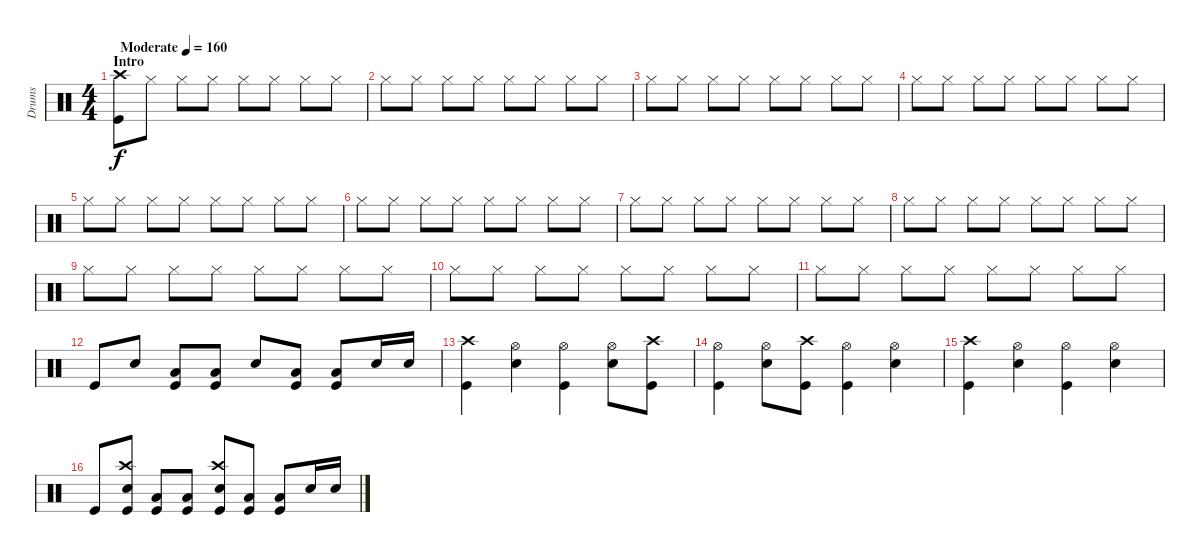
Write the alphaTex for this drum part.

\track ("Drums" "Drums") {instrument percussion}
\staff {score}
\articulation defaults
\ts (4 4)
\section ("" "Intro")
\tempo (160 "Moderate")
\clef neutral
\ks c
("Kick (hit)" "Crash high (hit)").8{dy f} "Hi-Hat (closed)".8 "Hi-Hat (closed)".8 "Hi-Hat (closed)".8 "Hi-Hat (closed)".8 "Hi-Hat (closed)".8 "Hi-Hat (closed)".8 "Hi-Hat (closed)".8 |
"Hi-Hat (closed)".8 "Hi-Hat (closed)".8 "Hi-Hat (closed)".8 "Hi-Hat (closed)".8 "Hi-Hat (closed)".8 "Hi-Hat (closed)".8 "Hi-Hat (closed)".8 "Hi-Hat (closed)".8 |
"Hi-Hat (closed)".8 "Hi-Hat (closed)".8 "Hi-Hat (closed)".8 "Hi-Hat (closed)".8 "Hi-Hat (closed)".8 "Hi-Hat (closed)".8 "Hi-Hat (closed)".8 "Hi-Hat (closed)".8 |
"Hi-Hat (closed)".8 "Hi-Hat (closed)".8 "Hi-Hat (closed)".8 "Hi-Hat (closed)".8 "Hi-Hat (closed)".8 "Hi-Hat (closed)".8 "Hi-Hat (closed)".8 "Hi-Hat (closed)".8 |
"Hi-Hat (closed)".8 "Hi-Hat (closed)".8 "Hi-Hat (closed)".8 "Hi-Hat (closed)".8 "Hi-Hat (closed)".8 "Hi-Hat (closed)".8 "Hi-Hat (closed)".8 "Hi-Hat (closed)".8 |
"Hi-Hat (closed)".8 "Hi-Hat (closed)".8 "Hi-Hat (closed)".8 "Hi-Hat (closed)".8 "Hi-Hat (closed)".8 "Hi-Hat (closed)".8 "Hi-Hat (closed)".8 "Hi-Hat (closed)".8 |
"Hi-Hat (closed)".8 "Hi-Hat (closed)".8 "Hi-Hat (closed)".8 "Hi-Hat (closed)".8 "Hi-Hat (closed)".8 "Hi-Hat (closed)".8 "Hi-Hat (closed)".8 "Hi-Hat (closed)".8 |
"Hi-Hat (closed)".8 "Hi-Hat (closed)".8 "Hi-Hat (closed)".8 "Hi-Hat (closed)".8 "Hi-Hat (closed)".8 "Hi-Hat (closed)".8 "Hi-Hat (closed)".8 "Hi-Hat (closed)".8 |
"Hi-Hat (closed)".8 "Hi-Hat (closed)".8 "Hi-Hat (closed)".8 "Hi-Hat (closed)".8 "Hi-Hat (closed)".8 "Hi-Hat (closed)".8 "Hi-Hat (closed)".8 "Hi-Hat (closed)".8 |
"Hi-Hat (closed)".8 "Hi-Hat (closed)".8 "Hi-Hat (closed)".8 "Hi-Hat (closed)".8 "Hi-Hat (closed)".8 "Hi-Hat (closed)".8 "Hi-Hat (closed)".8 "Hi-Hat (closed)".8 |
"Hi-Hat (closed)".8 "Hi-Hat (closed)".8 "Hi-Hat (closed)".8 "Hi-Hat (closed)".8 "Hi-Hat (closed)".8 "Hi-Hat (closed)".8 "Hi-Hat (closed)".8 "Hi-Hat (closed)".8 |
"Kick (hit)".8 "Snare (hit) 2".8 ("Kick (hit)" "Low Floor Tom (hit)").8 ("Kick (hit)" "Low Floor Tom (hit)").8 "Snare (hit) 2".8 ("Kick (hit)" "Low Floor Tom (hit)").8 ("Kick (hit)" "Low Floor Tom (hit)").8 "Snare (hit) 2".16 "Snare (hit) 2".16 |
("Kick (hit)" "Crash high (hit)").4 ("Snare (hit) 2" "Hi-Hat (open)").4 ("Kick (hit)" "Hi-Hat (open)").4 ("Snare (hit) 2" "Hi-Hat (open)").8 ("Kick (hit)" "Crash high (hit)").8 |
("Kick (hit)" "Hi-Hat (open)").4 ("Snare (hit) 2" "Hi-Hat (open)").8 ("Kick (hit)" "Crash high (hit)").8 ("Kick (hit)" "Hi-Hat (open)").4 ("Snare (hit) 2" "Hi-Hat (open)").4 |
("Kick (hit)" "Crash high (hit)").4 ("Snare (hit) 2" "Hi-Hat (open)").4 ("Kick (hit)" "Hi-Hat (open)").4 ("Snare (hit) 2" "Hi-Hat (open)").4 |
"Kick (hit)".8 ("Snare (hit) 2" "Kick (hit)" "Crash high (hit)").8 ("Kick (hit)" "Low Floor Tom (hit)").8 ("Kick (hit)" "Low Floor Tom (hit)").8 ("Snare (hit) 2" "Kick (hit)" "Crash high (hit)").8 ("Kick (hit)" "Low Floor Tom (hit)").8 ("Kick (hit)" "Low Floor Tom (hit)").8 "Snare (hit) 2".16 "Snare (hit) 2".16
